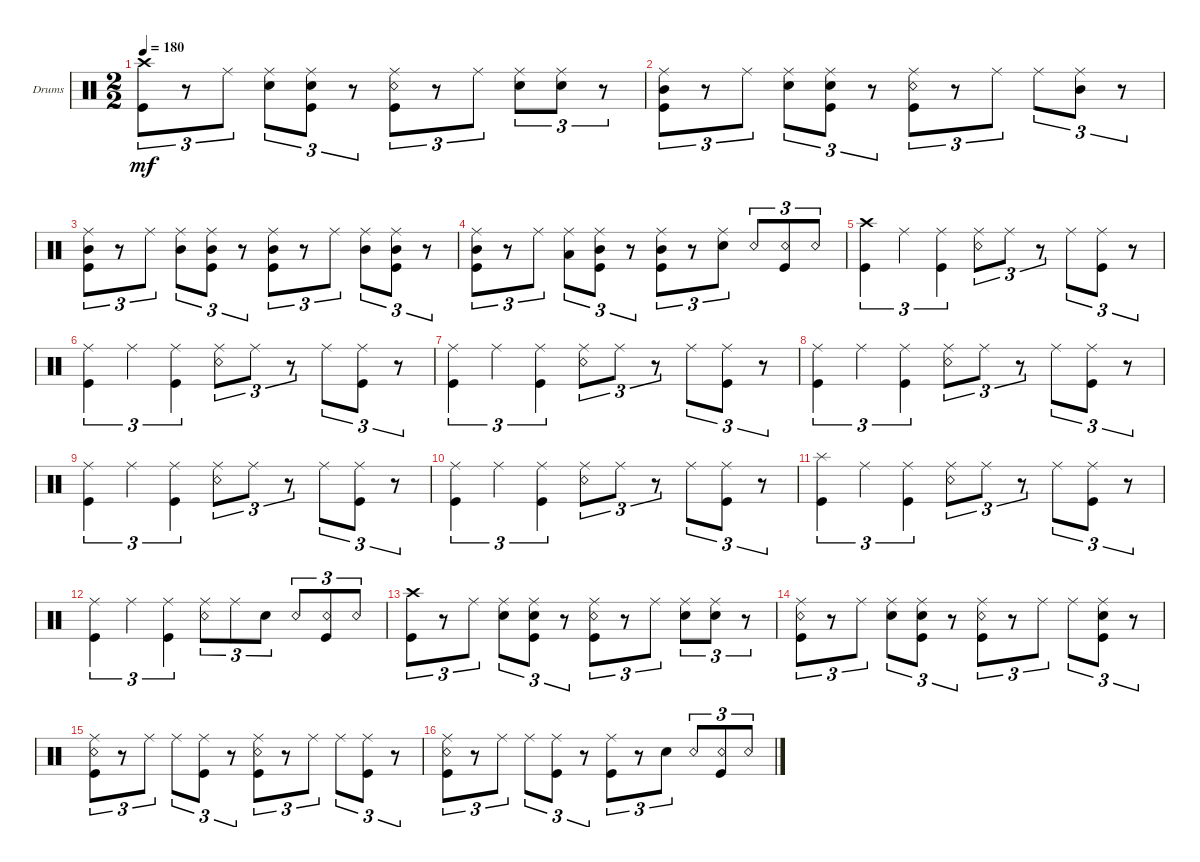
\defaultSystemsLayout 4
\bracketExtendMode groupsimilarinstruments
\firstSystemTrackNameOrientation horizontal
\otherSystemsTrackNameOrientation horizontal
\track ("Drumkit" "Drums") {instrument percussion}
\staff {score}
\articulation defaults
\ts (2 2)
\tempo 180
\clef neutral
\ks c
("Kick (hit)" "Crash high (hit)").8{tu (3 2) dy mf} r.8{tu (3 2)} "Ride (middle)".8{tu (3 2)} ("Snare (hit) 2" "Ride (middle)").8{tu (3 2)} ("Kick (hit)" "Snare (hit) 2" "Ride (middle)").8{tu (3 2)} r.8{tu (3 2)} ("Kick (hit)" "Ride (middle)" "Snare (rim shot)").8{tu (3 2)} r.8{tu (3 2)} "Ride (middle)".8{tu (3 2)} ("Snare (hit) 2" "Ride (middle)").8{tu (3 2)} ("Snare (hit) 2" "Ride (middle)").8{tu (3 2)} r.8{tu (3 2)} |
("Kick (hit)" "Ride (middle)" "Mid Tom (hit)").8{tu (3 2)} r.8{tu (3 2)} "Ride (middle)".8{tu (3 2)} ("Snare (hit) 2" "Ride (middle)").8{tu (3 2)} ("Kick (hit)" "Snare (hit) 2" "Ride (middle)").8{tu (3 2)} r.8{tu (3 2)} ("Kick (hit)" "Ride (middle)" "Snare (rim shot)").8{tu (3 2)} r.8{tu (3 2)} "Ride (middle)".8{tu (3 2)} "Ride (middle)".8{tu (3 2)} ("Mid Tom (hit)" "Ride (middle)").8{tu (3 2)} r.8{tu (3 2)} |
("Kick (hit)" "Ride (middle)" "Mid Tom (hit)").8{tu (3 2)} r.8{tu (3 2)} "Ride (middle)".8{tu (3 2)} ("Ride (middle)" "Mid Tom (hit)").8{tu (3 2)} ("Kick (hit)" "Mid Tom (hit)" "Ride (middle)").8{tu (3 2)} r.8{tu (3 2)} ("Kick (hit)" "Ride (middle)" "Mid Tom (hit)").8{tu (3 2)} r.8{tu (3 2)} "Ride (middle)".8{tu (3 2)} ("Ride (middle)" "Mid Tom (hit)").8{tu (3 2)} ("Kick (hit)" "Mid Tom (hit)" "Ride (middle)").8{tu (3 2)} r.8{tu (3 2)} |
("Kick (hit)" "Ride (middle)" "Mid Tom (hit)").8{tu (3 2)} r.8{tu (3 2)} "Ride (middle)".8{tu (3 2)} ("Ride (middle)" "Low Tom (hit)").8{tu (3 2)} ("Kick (hit)" "Mid Tom (hit)" "Ride (middle)").8{tu (3 2)} r.8{tu (3 2)} ("Kick (hit)" "Ride (middle)" "Mid Tom (hit)").8{tu (3 2)} r.8{tu (3 2)} ("Snare (hit) 2" "Ride (middle)").8{tu (3 2)} "Snare (rim shot)".8{tu (3 2)} ("Kick (hit)" "Snare (rim shot)").8{tu (3 2)} "Snare (rim shot)".8{tu (3 2)} |
("Kick (hit)" "Crash high (hit)").4{tu (3 2)} "Ride (middle)".4{tu (3 2)} ("Kick (hit)" "Ride (middle)").4{tu (3 2)} ("Snare (rim shot)" "Ride (middle)").8{tu (3 2)} "Ride (middle)".8{tu (3 2)} r.8{tu (3 2)} "Ride (middle)".8{tu (3 2)} ("Kick (hit)" "Ride (middle)").8{tu (3 2)} r.8{tu (3 2)} |
("Kick (hit)" "Ride (middle)").4{tu (3 2)} "Ride (middle)".4{tu (3 2)} ("Kick (hit)" "Ride (middle)").4{tu (3 2)} ("Snare (rim shot)" "Ride (middle)").8{tu (3 2)} "Ride (middle)".8{tu (3 2)} r.8{tu (3 2)} "Ride (middle)".8{tu (3 2)} ("Kick (hit)" "Ride (middle)").8{tu (3 2)} r.8{tu (3 2)} |
("Kick (hit)" "Ride (middle)").4{tu (3 2)} "Ride (middle)".4{tu (3 2)} ("Kick (hit)" "Ride (middle)").4{tu (3 2)} ("Snare (rim shot)" "Ride (middle)").8{tu (3 2)} "Ride (middle)".8{tu (3 2)} r.8{tu (3 2)} "Ride (middle)".8{tu (3 2)} ("Kick (hit)" "Ride (middle)").8{tu (3 2)} r.8{tu (3 2)} |
("Kick (hit)" "Ride (middle)").4{tu (3 2)} "Ride (middle)".4{tu (3 2)} ("Kick (hit)" "Ride (middle)").4{tu (3 2)} ("Snare (rim shot)" "Ride (middle)").8{tu (3 2)} "Ride (middle)".8{tu (3 2)} r.8{tu (3 2)} "Ride (middle)".8{tu (3 2)} ("Kick (hit)" "Ride (middle)").8{tu (3 2)} r.8{tu (3 2)} |
("Kick (hit)" "Ride (middle)").4{tu (3 2)} "Ride (middle)".4{tu (3 2)} ("Kick (hit)" "Ride (middle)").4{tu (3 2)} ("Snare (rim shot)" "Ride (middle)").8{tu (3 2)} "Ride (middle)".8{tu (3 2)} r.8{tu (3 2)} "Ride (middle)".8{tu (3 2)} ("Kick (hit)" "Ride (middle)").8{tu (3 2)} r.8{tu (3 2)} |
("Kick (hit)" "Ride (middle)").4{tu (3 2)} "Ride (middle)".4{tu (3 2)} ("Kick (hit)" "Ride (middle)").4{tu (3 2)} ("Snare (rim shot)" "Ride (middle)").8{tu (3 2)} "Ride (middle)".8{tu (3 2)} r.8{tu (3 2)} "Ride (middle)".8{tu (3 2)} ("Kick (hit)" "Ride (middle)").8{tu (3 2)} r.8{tu (3 2)} |
("Kick (hit)" "Splash (hit)").4{tu (3 2)} "Ride (middle)".4{tu (3 2)} ("Kick (hit)" "Ride (middle)").4{tu (3 2)} ("Snare (rim shot)" "Ride (middle)").8{tu (3 2)} "Ride (middle)".8{tu (3 2)} r.8{tu (3 2)} "Ride (middle)".8{tu (3 2)} ("Kick (hit)" "Ride (middle)").8{tu (3 2)} r.8{tu (3 2)} |
("Kick (hit)" "Ride (middle)").4{tu (3 2)} "Ride (middle)".4{tu (3 2)} ("Kick (hit)" "Ride (middle)").4{tu (3 2)} ("Snare (rim shot)" "Ride (middle)").8{tu (3 2)} "Ride (middle)".8{tu (3 2)} "Snare (hit) 2".8{tu (3 2)} "Snare (rim shot)".8{tu (3 2)} ("Kick (hit)" "Snare (rim shot)").8{tu (3 2)} "Snare (rim shot)".8{tu (3 2)} |
("Kick (hit)" "Crash high (hit)").8{tu (3 2)} r.8{tu (3 2)} "Ride (middle)".8{tu (3 2)} ("Snare (hit) 2" "Ride (middle)").8{tu (3 2)} ("Kick (hit)" "Snare (hit) 2" "Ride (middle)").8{tu (3 2)} r.8{tu (3 2)} ("Kick (hit)" "Ride (middle)" "Snare (rim shot)").8{tu (3 2)} r.8{tu (3 2)} "Ride (middle)".8{tu (3 2)} ("Snare (hit) 2" "Ride (middle)").8{tu (3 2)} ("Snare (hit) 2" "Ride (middle)").8{tu (3 2)} r.8{tu (3 2)} |
("Kick (hit)" "Ride (middle)" "Snare (rim shot)").8{tu (3 2)} r.8{tu (3 2)} "Ride (middle)".8{tu (3 2)} ("Snare (hit) 2" "Ride (middle)").8{tu (3 2)} ("Kick (hit)" "Snare (hit) 2" "Ride (middle)").8{tu (3 2)} r.8{tu (3 2)} ("Kick (hit)" "Ride (middle)" "Snare (rim shot)").8{tu (3 2)} r.8{tu (3 2)} "Ride (middle)".8{tu (3 2)} "Ride (middle)".8{tu (3 2)} ("Ride (middle)" "Kick (hit)" "Snare (hit) 2").8{tu (3 2)} r.8{tu (3 2)} |
("Kick (hit)" "Ride (middle)" "Snare (rim shot)").8{tu (3 2)} r.8{tu (3 2)} "Ride (middle)".8{tu (3 2)} "Ride (middle)".8{tu (3 2)} ("Kick (hit)" "Ride (middle)").8{tu (3 2)} r.8{tu (3 2)} ("Kick (hit)" "Ride (middle)" "Snare (rim shot)").8{tu (3 2)} r.8{tu (3 2)} "Ride (middle)".8{tu (3 2)} "Ride (middle)".8{tu (3 2)} ("Kick (hit)" "Ride (middle)").8{tu (3 2)} r.8{tu (3 2)} |
("Kick (hit)" "Ride (middle)" "Snare (rim shot)").8{tu (3 2)} r.8{tu (3 2)} "Ride (middle)".8{tu (3 2)} "Ride (middle)".8{tu (3 2)} ("Kick (hit)" "Ride (middle)").8{tu (3 2)} r.8{tu (3 2)} ("Kick (hit)" "Ride (middle)").8{tu (3 2)} r.8{tu (3 2)} "Snare (hit) 2".8{tu (3 2)} "Snare (rim shot)".8{tu (3 2)} ("Kick (hit)" "Snare (rim shot)").8{tu (3 2)} "Snare (rim shot)".8{tu (3 2)}
